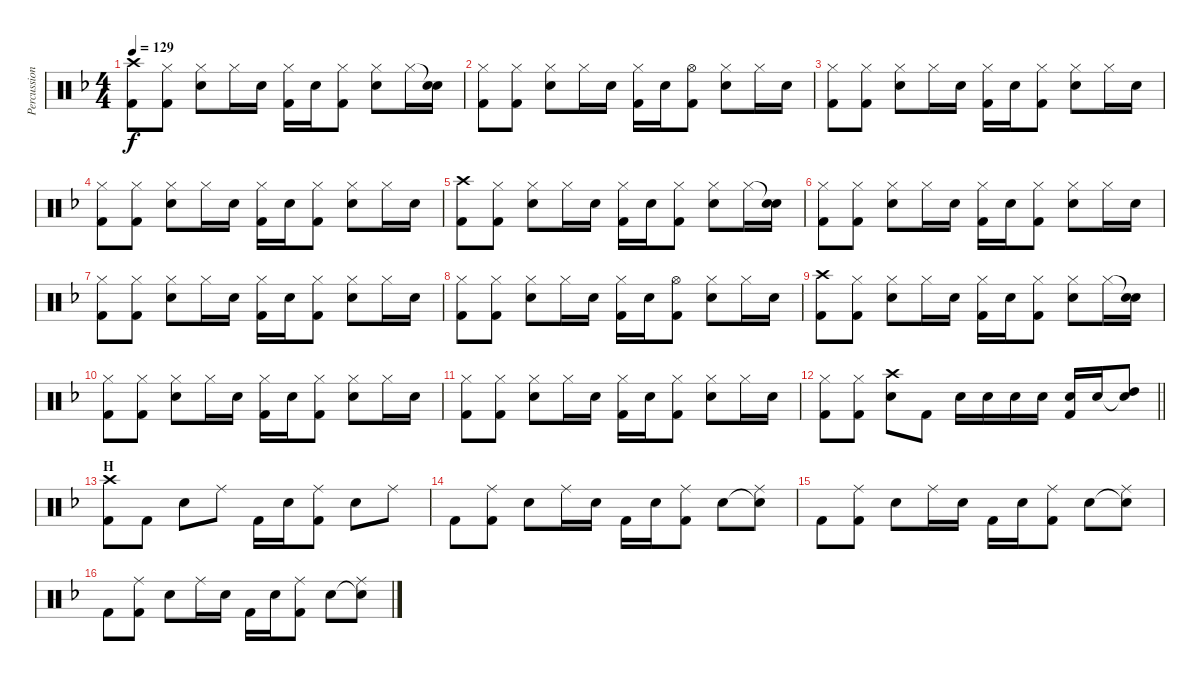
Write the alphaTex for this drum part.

\track ("Percussion" "Percussion") {instrument percussion}
\staff {score}
\articulation defaults
\ts (4 4)
\tempo 129
\clef neutral
\ks f
("Crash high (hit)" "Kick (hit) 2").8{dy f} ("Hi-Hat (closed)" "Kick (hit) 2").8 ("Hi-Hat (closed)" "Electric Snare (hit)").8 "Hi-Hat (closed)".16 "Electric Snare (hit)".16 ("Hi-Hat (closed)" "Kick (hit) 2").16 "Electric Snare (hit)".16 ("Hi-Hat (closed)" "Kick (hit) 2").8 ("Hi-Hat (closed)" "Electric Snare (hit)").8 "Hi-Hat (closed)".16 ("Snare (hit)"{t} "Electric Snare (hit)").16 |
("Hi-Hat (closed)" "Kick (hit) 2").8 ("Hi-Hat (closed)" "Kick (hit) 2").8 ("Hi-Hat (closed)" "Electric Snare (hit)").8 "Hi-Hat (closed)".16 "Electric Snare (hit)".16 ("Hi-Hat (closed)" "Kick (hit) 2").16 "Electric Snare (hit)".16 ("Hi-Hat (open)" "Kick (hit) 2").8 ("Hi-Hat (closed)" "Electric Snare (hit)").8 "Hi-Hat (closed)".16 "Electric Snare (hit)".16 |
("Hi-Hat (closed)" "Kick (hit) 2").8 ("Hi-Hat (closed)" "Kick (hit) 2").8 ("Hi-Hat (closed)" "Electric Snare (hit)").8 "Hi-Hat (closed)".16 "Electric Snare (hit)".16 ("Hi-Hat (closed)" "Kick (hit) 2").16 "Electric Snare (hit)".16 ("Hi-Hat (closed)" "Kick (hit) 2").8 ("Hi-Hat (closed)" "Electric Snare (hit)").8 "Hi-Hat (closed)".16 "Electric Snare (hit)".16 |
("Hi-Hat (closed)" "Kick (hit) 2").8 ("Hi-Hat (closed)" "Kick (hit) 2").8 ("Hi-Hat (closed)" "Electric Snare (hit)").8 "Hi-Hat (closed)".16 "Electric Snare (hit)".16 ("Hi-Hat (closed)" "Kick (hit) 2").16 "Electric Snare (hit)".16 ("Hi-Hat (closed)" "Kick (hit) 2").8 ("Hi-Hat (closed)" "Electric Snare (hit)").8 "Hi-Hat (closed)".16 "Electric Snare (hit)".16 |
("Crash high (hit)" "Kick (hit) 2").8 ("Hi-Hat (closed)" "Kick (hit) 2").8 ("Hi-Hat (closed)" "Electric Snare (hit)").8 "Hi-Hat (closed)".16 "Electric Snare (hit)".16 ("Hi-Hat (closed)" "Kick (hit) 2").16 "Electric Snare (hit)".16 ("Hi-Hat (closed)" "Kick (hit) 2").8 ("Hi-Hat (closed)" "Electric Snare (hit)").8 "Hi-Hat (closed)".16 ("Snare (hit)"{t} "Electric Snare (hit)").16 |
("Hi-Hat (closed)" "Kick (hit) 2").8 ("Hi-Hat (closed)" "Kick (hit) 2").8 ("Hi-Hat (closed)" "Electric Snare (hit)").8 "Hi-Hat (closed)".16 "Electric Snare (hit)".16 ("Hi-Hat (closed)" "Kick (hit) 2").16 "Electric Snare (hit)".16 ("Hi-Hat (closed)" "Kick (hit) 2").8 ("Hi-Hat (closed)" "Electric Snare (hit)").8 "Hi-Hat (closed)".16 "Electric Snare (hit)".16 |
("Hi-Hat (closed)" "Kick (hit) 2").8 ("Hi-Hat (closed)" "Kick (hit) 2").8 ("Hi-Hat (closed)" "Electric Snare (hit)").8 "Hi-Hat (closed)".16 "Electric Snare (hit)".16 ("Hi-Hat (closed)" "Kick (hit) 2").16 "Electric Snare (hit)".16 ("Hi-Hat (closed)" "Kick (hit) 2").8 ("Hi-Hat (closed)" "Electric Snare (hit)").8 "Hi-Hat (closed)".16 "Electric Snare (hit)".16 |
("Hi-Hat (closed)" "Kick (hit) 2").8 ("Hi-Hat (closed)" "Kick (hit) 2").8 ("Hi-Hat (closed)" "Electric Snare (hit)").8 "Hi-Hat (closed)".16 "Electric Snare (hit)".16 ("Hi-Hat (closed)" "Kick (hit) 2").16 "Electric Snare (hit)".16 ("Hi-Hat (open)" "Kick (hit) 2").8 ("Hi-Hat (closed)" "Electric Snare (hit)").8 "Hi-Hat (closed)".16 "Electric Snare (hit)".16 |
("Crash high (hit)" "Kick (hit) 2").8 ("Hi-Hat (closed)" "Kick (hit) 2").8 ("Hi-Hat (closed)" "Electric Snare (hit)").8 "Hi-Hat (closed)".16 "Electric Snare (hit)".16 ("Hi-Hat (closed)" "Kick (hit) 2").16 "Electric Snare (hit)".16 ("Hi-Hat (closed)" "Kick (hit) 2").8 ("Hi-Hat (closed)" "Electric Snare (hit)").8 "Hi-Hat (closed)".16 ("Snare (hit)"{t} "Electric Snare (hit)").16 |
("Hi-Hat (closed)" "Kick (hit) 2").8 ("Hi-Hat (closed)" "Kick (hit) 2").8 ("Hi-Hat (closed)" "Electric Snare (hit)").8 "Hi-Hat (closed)".16 "Electric Snare (hit)".16 ("Hi-Hat (closed)" "Kick (hit) 2").16 "Electric Snare (hit)".16 ("Hi-Hat (closed)" "Kick (hit) 2").8 ("Hi-Hat (closed)" "Electric Snare (hit)").8 "Hi-Hat (closed)".16 "Electric Snare (hit)".16 |
("Hi-Hat (closed)" "Kick (hit) 2").8 ("Hi-Hat (closed)" "Kick (hit) 2").8 ("Hi-Hat (closed)" "Electric Snare (hit)").8 "Hi-Hat (closed)".16 "Electric Snare (hit)".16 ("Hi-Hat (closed)" "Kick (hit) 2").16 "Electric Snare (hit)".16 ("Hi-Hat (closed)" "Kick (hit) 2").8 ("Hi-Hat (closed)" "Electric Snare (hit)").8 "Hi-Hat (closed)".16 "Electric Snare (hit)".16 |
\barLineRight lightlight
("Hi-Hat (closed)" "Kick (hit) 2").8 ("Hi-Hat (closed)" "Kick (hit) 2").8 ("Crash high (hit)" "Electric Snare (hit)").8 "Kick (hit) 2".8 "Electric Snare (hit)".16 "Electric Snare (hit)".16 "Electric Snare (hit)".16 "Electric Snare (hit)".16 ("Electric Snare (hit)" "Kick (hit) 2").16 "Electric Snare (hit)".16 ("Snare (hit)"{t} "High Tom (hit)").8 |
\section ("" "H")
("Crash high (hit)" "Kick (hit) 2").8 "Kick (hit) 2".8 "Electric Snare (hit)".8 "Ride (middle)".8 "Kick (hit) 2".16 "Electric Snare (hit)".16 ("Ride (middle)" "Kick (hit) 2").8 "Electric Snare (hit)".8 "Ride (middle)".8 |
"Kick (hit) 2".8 ("Ride (middle)" "Kick (hit) 2").8 "Electric Snare (hit)".8 "Ride (middle)".16 "Electric Snare (hit)".16 "Kick (hit) 2".16 "Electric Snare (hit)".16 ("Ride (middle)" "Kick (hit) 2").8 "Electric Snare (hit)".8 ("Snare (hit)"{t} "Ride (middle)").8 |
"Kick (hit) 2".8 ("Ride (middle)" "Kick (hit) 2").8 "Electric Snare (hit)".8 "Ride (middle)".16 "Electric Snare (hit)".16 "Kick (hit) 2".16 "Electric Snare (hit)".16 ("Ride (middle)" "Kick (hit) 2").8 "Electric Snare (hit)".8 ("Snare (hit)"{t} "Ride (middle)").8 |
"Kick (hit) 2".8 ("Ride (middle)" "Kick (hit) 2").8 "Electric Snare (hit)".8 "Ride (middle)".16 "Electric Snare (hit)".16 "Kick (hit) 2".16 "Electric Snare (hit)".16 ("Ride (middle)" "Kick (hit) 2").8 "Electric Snare (hit)".8 ("Snare (hit)"{t} "Ride (middle)").8
